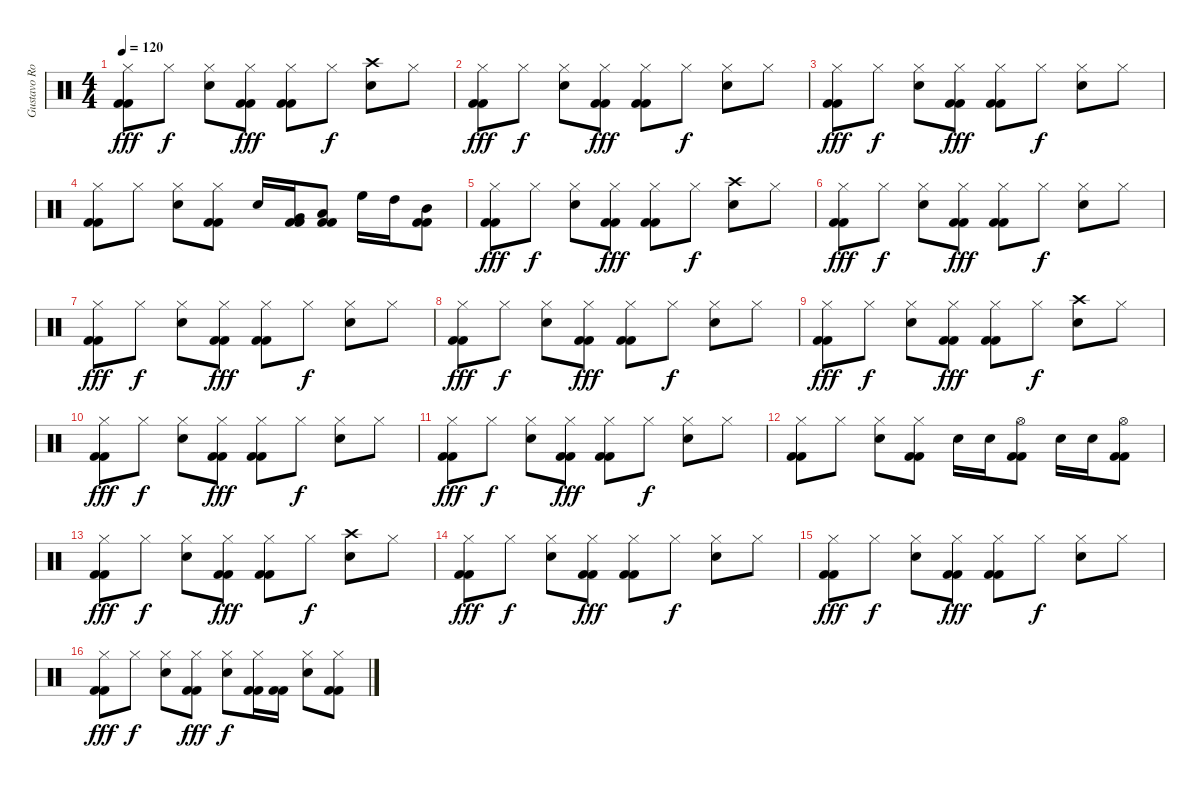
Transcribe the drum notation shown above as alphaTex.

\track ("Gustavo Rowek" "Gustavo Ro") {instrument percussion}
\staff {score}
\articulation defaults
\ts (4 4)
\tempo 120
\clef neutral
\ks c
("Kick (hit) 2" "Kick (hit) 2" "Hi-Hat (closed)").8{dy fff} "Hi-Hat (closed)".8{dy f} ("Snare (hit) 2" "Hi-Hat (closed)").8 ("Kick (hit) 2" "Kick (hit) 2" "Hi-Hat (closed)").8{dy fff} ("Kick (hit) 2" "Kick (hit) 2" "Hi-Hat (closed)").8 "Hi-Hat (closed)".8{dy f} ("Snare (hit) 2" "Crash high (hit)").8 "Hi-Hat (closed)".8 |
("Kick (hit) 2" "Kick (hit) 2" "Hi-Hat (closed)").8{dy fff} "Hi-Hat (closed)".8{dy f} ("Snare (hit) 2" "Hi-Hat (closed)").8 ("Kick (hit) 2" "Kick (hit) 2" "Hi-Hat (closed)").8{dy fff} ("Kick (hit) 2" "Kick (hit) 2" "Hi-Hat (closed)").8 "Hi-Hat (closed)".8{dy f} ("Snare (hit) 2" "Hi-Hat (closed)").8 "Hi-Hat (closed)".8 |
("Kick (hit) 2" "Kick (hit) 2" "Hi-Hat (closed)").8{dy fff} "Hi-Hat (closed)".8{dy f} ("Snare (hit) 2" "Hi-Hat (closed)").8 ("Kick (hit) 2" "Kick (hit) 2" "Hi-Hat (closed)").8{dy fff} ("Kick (hit) 2" "Kick (hit) 2" "Hi-Hat (closed)").8 "Hi-Hat (closed)".8{dy f} ("Snare (hit) 2" "Hi-Hat (closed)").8 "Hi-Hat (closed)".8 |
("Kick (hit) 2" "Kick (hit) 2" "Hi-Hat (closed)").8 "Hi-Hat (closed)".8 ("Snare (hit) 2" "Hi-Hat (closed)").8 ("Kick (hit) 2" "Kick (hit) 2" "Hi-Hat (closed)").8 "Snare (hit) 2".16 ("Kick (hit) 2" "Kick (hit) 2" "Very Low Tom (hit)").16 ("Kick (hit) 2" "Kick (hit) 2" "Low Floor Tom (hit)").8 "High Floor Tom (hit)".16 "High Tom (hit)".16 ("Kick (hit) 2" "Kick (hit) 2" "Mid Tom (hit)").8 |
("Kick (hit) 2" "Kick (hit) 2" "Hi-Hat (closed)").8{dy fff} "Hi-Hat (closed)".8{dy f} ("Snare (hit) 2" "Hi-Hat (closed)").8 ("Kick (hit) 2" "Kick (hit) 2" "Hi-Hat (closed)").8{dy fff} ("Kick (hit) 2" "Kick (hit) 2" "Hi-Hat (closed)").8 "Hi-Hat (closed)".8{dy f} ("Snare (hit) 2" "Crash high (hit)").8 "Hi-Hat (closed)".8 |
("Kick (hit) 2" "Kick (hit) 2" "Hi-Hat (closed)").8{dy fff} "Hi-Hat (closed)".8{dy f} ("Snare (hit) 2" "Hi-Hat (closed)").8 ("Kick (hit) 2" "Kick (hit) 2" "Hi-Hat (closed)").8{dy fff} ("Kick (hit) 2" "Kick (hit) 2" "Hi-Hat (closed)").8 "Hi-Hat (closed)".8{dy f} ("Snare (hit) 2" "Hi-Hat (closed)").8 "Hi-Hat (closed)".8 |
("Kick (hit) 2" "Kick (hit) 2" "Hi-Hat (closed)").8{dy fff} "Hi-Hat (closed)".8{dy f} ("Snare (hit) 2" "Hi-Hat (closed)").8 ("Kick (hit) 2" "Kick (hit) 2" "Hi-Hat (closed)").8{dy fff} ("Kick (hit) 2" "Kick (hit) 2" "Hi-Hat (closed)").8 "Hi-Hat (closed)".8{dy f} ("Snare (hit) 2" "Hi-Hat (closed)").8 "Hi-Hat (closed)".8 |
("Kick (hit) 2" "Kick (hit) 2" "Hi-Hat (closed)").8{dy fff} "Hi-Hat (closed)".8{dy f} ("Snare (hit) 2" "Hi-Hat (closed)").8 ("Kick (hit) 2" "Kick (hit) 2" "Hi-Hat (closed)").8{dy fff} ("Kick (hit) 2" "Kick (hit) 2" "Hi-Hat (closed)").8 "Hi-Hat (closed)".8{dy f} ("Snare (hit) 2" "Hi-Hat (closed)").8 "Hi-Hat (closed)".8 |
("Kick (hit) 2" "Kick (hit) 2" "Hi-Hat (closed)").8{dy fff} "Hi-Hat (closed)".8{dy f} ("Snare (hit) 2" "Hi-Hat (closed)").8 ("Kick (hit) 2" "Kick (hit) 2" "Hi-Hat (closed)").8{dy fff} ("Kick (hit) 2" "Kick (hit) 2" "Hi-Hat (closed)").8 "Hi-Hat (closed)".8{dy f} ("Snare (hit) 2" "Crash high (hit)").8 "Hi-Hat (closed)".8 |
("Kick (hit) 2" "Kick (hit) 2" "Hi-Hat (closed)").8{dy fff} "Hi-Hat (closed)".8{dy f} ("Snare (hit) 2" "Hi-Hat (closed)").8 ("Kick (hit) 2" "Kick (hit) 2" "Hi-Hat (closed)").8{dy fff} ("Kick (hit) 2" "Kick (hit) 2" "Hi-Hat (closed)").8 "Hi-Hat (closed)".8{dy f} ("Snare (hit) 2" "Hi-Hat (closed)").8 "Hi-Hat (closed)".8 |
("Kick (hit) 2" "Kick (hit) 2" "Hi-Hat (closed)").8{dy fff} "Hi-Hat (closed)".8{dy f} ("Snare (hit) 2" "Hi-Hat (closed)").8 ("Kick (hit) 2" "Kick (hit) 2" "Hi-Hat (closed)").8{dy fff} ("Kick (hit) 2" "Kick (hit) 2" "Hi-Hat (closed)").8 "Hi-Hat (closed)".8{dy f} ("Snare (hit) 2" "Hi-Hat (closed)").8 "Hi-Hat (closed)".8 |
("Kick (hit) 2" "Kick (hit) 2" "Hi-Hat (closed)").8 "Hi-Hat (closed)".8 ("Snare (hit) 2" "Hi-Hat (closed)").8 ("Kick (hit) 2" "Kick (hit) 2" "Hi-Hat (closed)").8 "Snare (hit) 2".16 "Snare (hit) 2".16 ("Kick (hit) 2" "Kick (hit) 2" "Hi-Hat (open)").8 "Snare (hit) 2".16 "Snare (hit) 2".16 ("Kick (hit) 2" "Kick (hit) 2" "Hi-Hat (open)").8 |
("Kick (hit) 2" "Kick (hit) 2" "Hi-Hat (closed)").8{dy fff} "Hi-Hat (closed)".8{dy f} ("Snare (hit) 2" "Hi-Hat (closed)").8 ("Kick (hit) 2" "Kick (hit) 2" "Hi-Hat (closed)").8{dy fff} ("Kick (hit) 2" "Kick (hit) 2" "Hi-Hat (closed)").8 "Hi-Hat (closed)".8{dy f} ("Snare (hit) 2" "Crash high (hit)").8 "Hi-Hat (closed)".8 |
("Kick (hit) 2" "Kick (hit) 2" "Hi-Hat (closed)").8{dy fff} "Hi-Hat (closed)".8{dy f} ("Snare (hit) 2" "Hi-Hat (closed)").8 ("Kick (hit) 2" "Kick (hit) 2" "Hi-Hat (closed)").8{dy fff} ("Kick (hit) 2" "Kick (hit) 2" "Hi-Hat (closed)").8 "Hi-Hat (closed)".8{dy f} ("Snare (hit) 2" "Hi-Hat (closed)").8 "Hi-Hat (closed)".8 |
("Kick (hit) 2" "Kick (hit) 2" "Hi-Hat (closed)").8{dy fff} "Hi-Hat (closed)".8{dy f} ("Snare (hit) 2" "Hi-Hat (closed)").8 ("Kick (hit) 2" "Kick (hit) 2" "Hi-Hat (closed)").8{dy fff} ("Kick (hit) 2" "Kick (hit) 2" "Hi-Hat (closed)").8 "Hi-Hat (closed)".8{dy f} ("Snare (hit) 2" "Hi-Hat (closed)").8 "Hi-Hat (closed)".8 |
("Kick (hit) 2" "Kick (hit) 2" "Hi-Hat (closed)").8{dy fff} "Hi-Hat (closed)".8{dy f} ("Snare (hit) 2" "Hi-Hat (closed)").8 ("Kick (hit) 2" "Kick (hit) 2" "Hi-Hat (closed)").8{dy fff} ("Snare (hit) 2" "Hi-Hat (closed)").8{dy f} ("Kick (hit) 2" "Kick (hit) 2" "Hi-Hat (closed)").16 ("Kick (hit) 2" "Kick (hit) 2").16 ("Snare (hit) 2" "Hi-Hat (closed)").8 ("Kick (hit) 2" "Kick (hit) 2" "Hi-Hat (closed)").8
